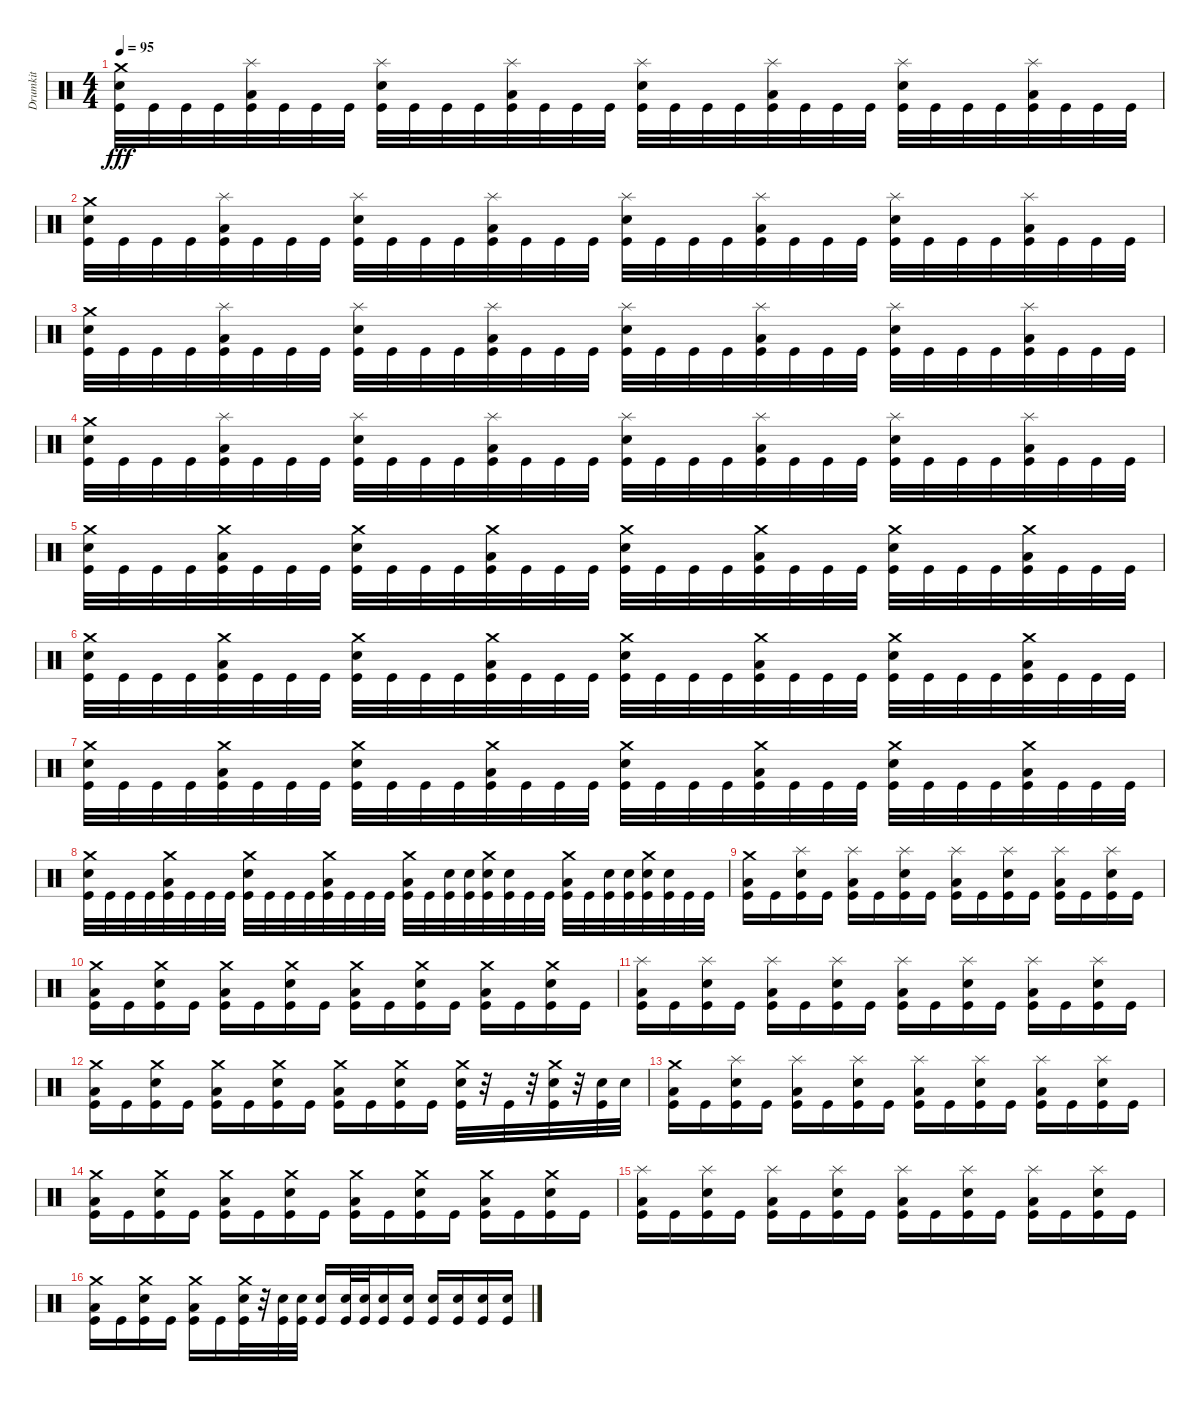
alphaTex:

\track ("Drumkit" "Drumkit") {instrument percussion}
\staff {score}
\articulation defaults
\ts (4 4)
\tempo 95
\clef neutral
\ks c
("Crash medium (hit)" "Snare (hit) 2" "Kick (hit)").32{dy fff} "Kick (hit)".32 "Kick (hit)".32 "Kick (hit)".32 ("Splash (hit)" "Low Floor Tom (hit)" "Kick (hit)").32 "Kick (hit)".32 "Kick (hit)".32 "Kick (hit)".32 ("Splash (hit)" "Snare (hit) 2" "Kick (hit)").32 "Kick (hit)".32 "Kick (hit)".32 "Kick (hit)".32 ("Splash (hit)" "Low Floor Tom (hit)" "Kick (hit)").32 "Kick (hit)".32 "Kick (hit)".32 "Kick (hit)".32 ("Splash (hit)" "Snare (hit) 2" "Kick (hit)").32 "Kick (hit)".32 "Kick (hit)".32 "Kick (hit)".32 ("Splash (hit)" "Low Floor Tom (hit)" "Kick (hit)").32 "Kick (hit)".32 "Kick (hit)".32 "Kick (hit)".32 ("Splash (hit)" "Snare (hit) 2" "Kick (hit)").32 "Kick (hit)".32 "Kick (hit)".32 "Kick (hit)".32 ("Splash (hit)" "Low Floor Tom (hit)" "Kick (hit)").32 "Kick (hit)".32 "Kick (hit)".32 "Kick (hit)".32 |
("Crash medium (hit)" "Snare (hit) 2" "Kick (hit)").32 "Kick (hit)".32 "Kick (hit)".32 "Kick (hit)".32 ("Splash (hit)" "Low Floor Tom (hit)" "Kick (hit)").32 "Kick (hit)".32 "Kick (hit)".32 "Kick (hit)".32 ("Splash (hit)" "Snare (hit) 2" "Kick (hit)").32 "Kick (hit)".32 "Kick (hit)".32 "Kick (hit)".32 ("Splash (hit)" "Low Floor Tom (hit)" "Kick (hit)").32 "Kick (hit)".32 "Kick (hit)".32 "Kick (hit)".32 ("Splash (hit)" "Snare (hit) 2" "Kick (hit)").32 "Kick (hit)".32 "Kick (hit)".32 "Kick (hit)".32 ("Splash (hit)" "Low Floor Tom (hit)" "Kick (hit)").32 "Kick (hit)".32 "Kick (hit)".32 "Kick (hit)".32 ("Splash (hit)" "Snare (hit) 2" "Kick (hit)").32 "Kick (hit)".32 "Kick (hit)".32 "Kick (hit)".32 ("Splash (hit)" "Low Floor Tom (hit)" "Kick (hit)").32 "Kick (hit)".32 "Kick (hit)".32 "Kick (hit)".32 |
("Crash medium (hit)" "Snare (hit) 2" "Kick (hit)").32 "Kick (hit)".32 "Kick (hit)".32 "Kick (hit)".32 ("Splash (hit)" "Low Floor Tom (hit)" "Kick (hit)").32 "Kick (hit)".32 "Kick (hit)".32 "Kick (hit)".32 ("Splash (hit)" "Snare (hit) 2" "Kick (hit)").32 "Kick (hit)".32 "Kick (hit)".32 "Kick (hit)".32 ("Splash (hit)" "Low Floor Tom (hit)" "Kick (hit)").32 "Kick (hit)".32 "Kick (hit)".32 "Kick (hit)".32 ("Splash (hit)" "Snare (hit) 2" "Kick (hit)").32 "Kick (hit)".32 "Kick (hit)".32 "Kick (hit)".32 ("Splash (hit)" "Low Floor Tom (hit)" "Kick (hit)").32 "Kick (hit)".32 "Kick (hit)".32 "Kick (hit)".32 ("Splash (hit)" "Snare (hit) 2" "Kick (hit)").32 "Kick (hit)".32 "Kick (hit)".32 "Kick (hit)".32 ("Splash (hit)" "Low Floor Tom (hit)" "Kick (hit)").32 "Kick (hit)".32 "Kick (hit)".32 "Kick (hit)".32 |
("Crash medium (hit)" "Snare (hit) 2" "Kick (hit)").32 "Kick (hit)".32 "Kick (hit)".32 "Kick (hit)".32 ("Splash (hit)" "Low Floor Tom (hit)" "Kick (hit)").32 "Kick (hit)".32 "Kick (hit)".32 "Kick (hit)".32 ("Splash (hit)" "Snare (hit) 2" "Kick (hit)").32 "Kick (hit)".32 "Kick (hit)".32 "Kick (hit)".32 ("Splash (hit)" "Low Floor Tom (hit)" "Kick (hit)").32 "Kick (hit)".32 "Kick (hit)".32 "Kick (hit)".32 ("Splash (hit)" "Snare (hit) 2" "Kick (hit)").32 "Kick (hit)".32 "Kick (hit)".32 "Kick (hit)".32 ("Splash (hit)" "Low Floor Tom (hit)" "Kick (hit)").32 "Kick (hit)".32 "Kick (hit)".32 "Kick (hit)".32 ("Splash (hit)" "Snare (hit) 2" "Kick (hit)").32 "Kick (hit)".32 "Kick (hit)".32 "Kick (hit)".32 ("Splash (hit)" "Low Floor Tom (hit)" "Kick (hit)").32 "Kick (hit)".32 "Kick (hit)".32 "Kick (hit)".32 |
("Crash medium (hit)" "Snare (hit) 2" "Kick (hit)").32 "Kick (hit)".32 "Kick (hit)".32 "Kick (hit)".32 ("Crash medium (hit)" "Low Floor Tom (hit)" "Kick (hit)").32 "Kick (hit)".32 "Kick (hit)".32 "Kick (hit)".32 ("Crash medium (hit)" "Snare (hit) 2" "Kick (hit)").32 "Kick (hit)".32 "Kick (hit)".32 "Kick (hit)".32 ("Crash medium (hit)" "Low Floor Tom (hit)" "Kick (hit)").32 "Kick (hit)".32 "Kick (hit)".32 "Kick (hit)".32 ("Crash medium (hit)" "Snare (hit) 2" "Kick (hit)").32 "Kick (hit)".32 "Kick (hit)".32 "Kick (hit)".32 ("Crash medium (hit)" "Low Floor Tom (hit)" "Kick (hit)").32 "Kick (hit)".32 "Kick (hit)".32 "Kick (hit)".32 ("Crash medium (hit)" "Snare (hit) 2" "Kick (hit)").32 "Kick (hit)".32 "Kick (hit)".32 "Kick (hit)".32 ("Crash medium (hit)" "Low Floor Tom (hit)" "Kick (hit)").32 "Kick (hit)".32 "Kick (hit)".32 "Kick (hit)".32 |
("Crash medium (hit)" "Snare (hit) 2" "Kick (hit)").32 "Kick (hit)".32 "Kick (hit)".32 "Kick (hit)".32 ("Crash medium (hit)" "Low Floor Tom (hit)" "Kick (hit)").32 "Kick (hit)".32 "Kick (hit)".32 "Kick (hit)".32 ("Crash medium (hit)" "Snare (hit) 2" "Kick (hit)").32 "Kick (hit)".32 "Kick (hit)".32 "Kick (hit)".32 ("Crash medium (hit)" "Low Floor Tom (hit)" "Kick (hit)").32 "Kick (hit)".32 "Kick (hit)".32 "Kick (hit)".32 ("Crash medium (hit)" "Snare (hit) 2" "Kick (hit)").32 "Kick (hit)".32 "Kick (hit)".32 "Kick (hit)".32 ("Crash medium (hit)" "Low Floor Tom (hit)" "Kick (hit)").32 "Kick (hit)".32 "Kick (hit)".32 "Kick (hit)".32 ("Crash medium (hit)" "Snare (hit) 2" "Kick (hit)").32 "Kick (hit)".32 "Kick (hit)".32 "Kick (hit)".32 ("Crash medium (hit)" "Low Floor Tom (hit)" "Kick (hit)").32 "Kick (hit)".32 "Kick (hit)".32 "Kick (hit)".32 |
("Crash medium (hit)" "Snare (hit) 2" "Kick (hit)").32 "Kick (hit)".32 "Kick (hit)".32 "Kick (hit)".32 ("Crash medium (hit)" "Low Floor Tom (hit)" "Kick (hit)").32 "Kick (hit)".32 "Kick (hit)".32 "Kick (hit)".32 ("Crash medium (hit)" "Snare (hit) 2" "Kick (hit)").32 "Kick (hit)".32 "Kick (hit)".32 "Kick (hit)".32 ("Crash medium (hit)" "Low Floor Tom (hit)" "Kick (hit)").32 "Kick (hit)".32 "Kick (hit)".32 "Kick (hit)".32 ("Crash medium (hit)" "Snare (hit) 2" "Kick (hit)").32 "Kick (hit)".32 "Kick (hit)".32 "Kick (hit)".32 ("Crash medium (hit)" "Low Floor Tom (hit)" "Kick (hit)").32 "Kick (hit)".32 "Kick (hit)".32 "Kick (hit)".32 ("Crash medium (hit)" "Snare (hit) 2" "Kick (hit)").32 "Kick (hit)".32 "Kick (hit)".32 "Kick (hit)".32 ("Crash medium (hit)" "Low Floor Tom (hit)" "Kick (hit)").32 "Kick (hit)".32 "Kick (hit)".32 "Kick (hit)".32 |
("Crash medium (hit)" "Snare (hit) 2" "Kick (hit)").32 "Kick (hit)".32 "Kick (hit)".32 "Kick (hit)".32 ("Crash medium (hit)" "Low Floor Tom (hit)" "Kick (hit)").32 "Kick (hit)".32 "Kick (hit)".32 "Kick (hit)".32 ("Crash medium (hit)" "Snare (hit) 2" "Kick (hit)").32 "Kick (hit)".32 "Kick (hit)".32 "Kick (hit)".32 ("Crash medium (hit)" "Low Floor Tom (hit)" "Kick (hit)").32 "Kick (hit)".32 "Kick (hit)".32 "Kick (hit)".32 ("Crash medium (hit)" "Low Floor Tom (hit)" "Kick (hit)").32 "Kick (hit)".32 ("Snare (hit) 2" "Kick (hit)").32 ("Snare (hit) 2" "Kick (hit)").32 ("Crash medium (hit)" "Snare (hit) 2" "Kick (hit)").32 ("Snare (hit) 2" "Kick (hit)").32 "Kick (hit)".32 "Kick (hit)".32 ("Crash medium (hit)" "Low Floor Tom (hit)" "Kick (hit)").32 "Kick (hit)".32 ("Snare (hit) 2" "Kick (hit)").32 ("Snare (hit) 2" "Kick (hit)").32 ("Crash medium (hit)" "Snare (hit) 2" "Kick (hit)").32 ("Snare (hit) 2" "Kick (hit)").32 "Kick (hit)".32 "Kick (hit)".32 |
("Crash medium (hit)" "Low Floor Tom (hit)" "Kick (hit)").16 "Kick (hit)".16 ("Splash (hit)" "Snare (hit) 2" "Kick (hit)").16 "Kick (hit)".16 ("Splash (hit)" "Low Floor Tom (hit)" "Kick (hit)").16 "Kick (hit)".16 ("Splash (hit)" "Snare (hit) 2" "Kick (hit)").16 "Kick (hit)".16 ("Splash (hit)" "Low Floor Tom (hit)" "Kick (hit)").16 "Kick (hit)".16 ("Splash (hit)" "Snare (hit) 2" "Kick (hit)").16 "Kick (hit)".16 ("Splash (hit)" "Low Floor Tom (hit)" "Kick (hit)").16 "Kick (hit)".16 ("Splash (hit)" "Snare (hit) 2" "Kick (hit)").16 "Kick (hit)".16 |
("Crash medium (hit)" "Low Floor Tom (hit)" "Kick (hit)").16 "Kick (hit)".16 ("Crash medium (hit)" "Snare (hit) 2" "Kick (hit)").16 "Kick (hit)".16 ("Crash medium (hit)" "Low Floor Tom (hit)" "Kick (hit)").16 "Kick (hit)".16 ("Crash medium (hit)" "Snare (hit) 2" "Kick (hit)").16 "Kick (hit)".16 ("Crash medium (hit)" "Low Floor Tom (hit)" "Kick (hit)").16 "Kick (hit)".16 ("Crash medium (hit)" "Snare (hit) 2" "Kick (hit)").16 "Kick (hit)".16 ("Crash medium (hit)" "Low Floor Tom (hit)" "Kick (hit)").16 "Kick (hit)".16 ("Crash medium (hit)" "Snare (hit) 2" "Kick (hit)").16 "Kick (hit)".16 |
("Splash (hit)" "Low Floor Tom (hit)" "Kick (hit)").16 "Kick (hit)".16 ("Splash (hit)" "Snare (hit) 2" "Kick (hit)").16 "Kick (hit)".16 ("Splash (hit)" "Low Floor Tom (hit)" "Kick (hit)").16 "Kick (hit)".16 ("Splash (hit)" "Snare (hit) 2" "Kick (hit)").16 "Kick (hit)".16 ("Splash (hit)" "Low Floor Tom (hit)" "Kick (hit)").16 "Kick (hit)".16 ("Splash (hit)" "Snare (hit) 2" "Kick (hit)").16 "Kick (hit)".16 ("Splash (hit)" "Low Floor Tom (hit)" "Kick (hit)").16 "Kick (hit)".16 ("Splash (hit)" "Snare (hit) 2" "Kick (hit)").16 "Kick (hit)".16 |
("Crash medium (hit)" "Low Floor Tom (hit)" "Kick (hit)").16 "Kick (hit)".16 ("Crash medium (hit)" "Snare (hit) 2" "Kick (hit)").16 "Kick (hit)".16 ("Crash medium (hit)" "Low Floor Tom (hit)" "Kick (hit)").16 "Kick (hit)".16 ("Crash medium (hit)" "Snare (hit) 2" "Kick (hit)").16 "Kick (hit)".16 ("Crash medium (hit)" "Low Floor Tom (hit)" "Kick (hit)").16 "Kick (hit)".16 ("Crash medium (hit)" "Snare (hit) 2" "Kick (hit)").16 "Kick (hit)".16 ("Crash medium (hit)" "Snare (hit) 2" "Kick (hit)").32 r.32 "Kick (hit)".32 r.32 ("Crash medium (hit)" "Snare (hit) 2" "Kick (hit)").32 r.32 ("Snare (hit) 2" "Kick (hit)").32 "Snare (hit) 2".32 |
("Crash medium (hit)" "Low Floor Tom (hit)" "Kick (hit)").16 "Kick (hit)".16 ("Splash (hit)" "Snare (hit) 2" "Kick (hit)").16 "Kick (hit)".16 ("Splash (hit)" "Low Floor Tom (hit)" "Kick (hit)").16 "Kick (hit)".16 ("Splash (hit)" "Snare (hit) 2" "Kick (hit)").16 "Kick (hit)".16 ("Splash (hit)" "Low Floor Tom (hit)" "Kick (hit)").16 "Kick (hit)".16 ("Splash (hit)" "Snare (hit) 2" "Kick (hit)").16 "Kick (hit)".16 ("Splash (hit)" "Low Floor Tom (hit)" "Kick (hit)").16 "Kick (hit)".16 ("Splash (hit)" "Snare (hit) 2" "Kick (hit)").16 "Kick (hit)".16 |
("Crash medium (hit)" "Low Floor Tom (hit)" "Kick (hit)").16 "Kick (hit)".16 ("Crash medium (hit)" "Snare (hit) 2" "Kick (hit)").16 "Kick (hit)".16 ("Crash medium (hit)" "Low Floor Tom (hit)" "Kick (hit)").16 "Kick (hit)".16 ("Crash medium (hit)" "Snare (hit) 2" "Kick (hit)").16 "Kick (hit)".16 ("Crash medium (hit)" "Low Floor Tom (hit)" "Kick (hit)").16 "Kick (hit)".16 ("Crash medium (hit)" "Snare (hit) 2" "Kick (hit)").16 "Kick (hit)".16 ("Crash medium (hit)" "Low Floor Tom (hit)" "Kick (hit)").16 "Kick (hit)".16 ("Crash medium (hit)" "Snare (hit) 2" "Kick (hit)").16 "Kick (hit)".16 |
("Splash (hit)" "Low Floor Tom (hit)" "Kick (hit)").16 "Kick (hit)".16 ("Splash (hit)" "Snare (hit) 2" "Kick (hit)").16 "Kick (hit)".16 ("Splash (hit)" "Low Floor Tom (hit)" "Kick (hit)").16 "Kick (hit)".16 ("Splash (hit)" "Snare (hit) 2" "Kick (hit)").16 "Kick (hit)".16 ("Splash (hit)" "Low Floor Tom (hit)" "Kick (hit)").16 "Kick (hit)".16 ("Splash (hit)" "Snare (hit) 2" "Kick (hit)").16 "Kick (hit)".16 ("Splash (hit)" "Low Floor Tom (hit)" "Kick (hit)").16 "Kick (hit)".16 ("Splash (hit)" "Snare (hit) 2" "Kick (hit)").16 "Kick (hit)".16 |
("Crash medium (hit)" "Low Floor Tom (hit)" "Kick (hit)").16 "Kick (hit)".16 ("Crash medium (hit)" "Snare (hit) 2" "Kick (hit)").16 "Kick (hit)".16 ("Crash medium (hit)" "Low Floor Tom (hit)" "Kick (hit)").16 "Kick (hit)".16 ("Crash medium (hit)" "Snare (hit) 2" "Kick (hit)").32 r.32 ("Snare (hit) 2" "Kick (hit)").32 ("Snare (hit) 2" "Kick (hit)").32 ("Snare (hit) 2" "Kick (hit)").16 ("Snare (hit) 2" "Kick (hit)").32 ("Snare (hit) 2" "Kick (hit)").32 ("Snare (hit) 2" "Kick (hit)").16 ("Snare (hit) 2" "Kick (hit)").16 ("Snare (hit) 2" "Kick (hit)").16 ("Snare (hit) 2" "Kick (hit)").16 ("Snare (hit) 2" "Kick (hit)").16 ("Snare (hit) 2" "Kick (hit)").16
